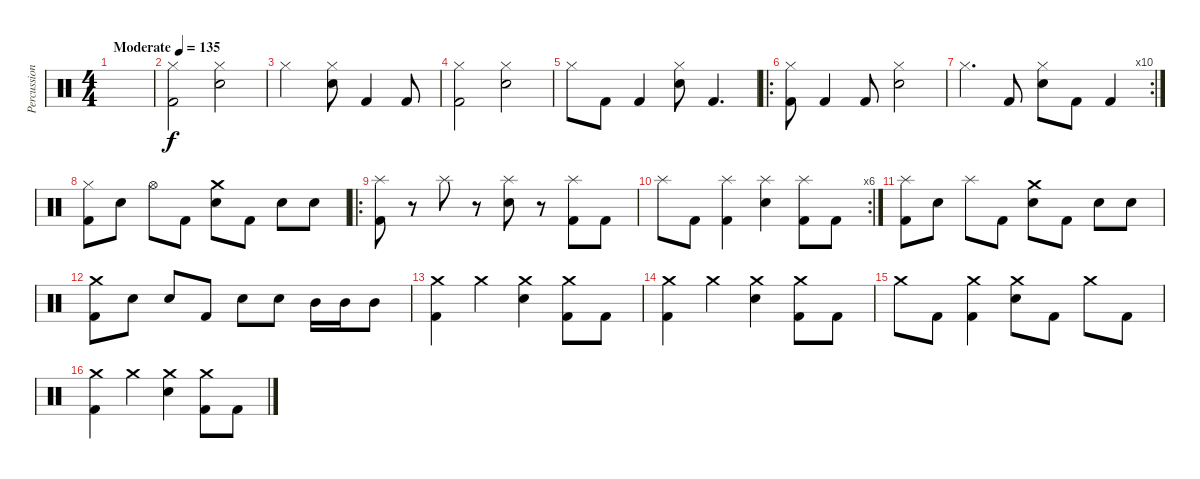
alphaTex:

\track ("Percussion" "Percussion") {instrument percussion}
\staff {score}
\articulation defaults
\ts (4 4)
\tempo (135 "Moderate")
\clef neutral
\ks c
|
("Hi-Hat (closed)" "Kick (hit) 2").2 ("Hi-Hat (closed)" "Electric Snare (hit)").2 |
"Hi-Hat (closed)".2 ("Hi-Hat (closed)" "Electric Snare (hit)").8 "Kick (hit) 2".4 "Kick (hit) 2".8 |
("Hi-Hat (closed)" "Kick (hit) 2").2 ("Hi-Hat (closed)" "Electric Snare (hit)").2 |
"Hi-Hat (closed)".8 "Kick (hit) 2".8 "Kick (hit) 2".4 ("Hi-Hat (closed)" "Electric Snare (hit)").8 "Kick (hit) 2".4{d} |
\ro
("Hi-Hat (closed)" "Kick (hit) 2").8 "Kick (hit) 2".4 "Kick (hit) 2".8 ("Hi-Hat (closed)" "Electric Snare (hit)").2 |
\rc 10 "Hi-Hat (closed)".4{d} "Kick (hit) 2".8
("Hi-Hat (closed)" "Electric Snare (hit)").8 "Kick (hit) 2".8 "Kick (hit) 2".4 |
("Hi-Hat (closed)" "Kick (hit) 2").8 "Electric Snare (hit)".8 "Hi-Hat (open)".8 "Kick (hit) 2".8 ("Crash medium (hit)" "Electric Snare (hit)").8 "Kick (hit) 2".8 "Electric Snare (hit)".8 "Electric Snare (hit)".8 |
\ro
("Splash (hit)" "Kick (hit) 2").8 r.8 "Splash (hit)".8 r.8 ("Splash (hit)" "Electric Snare (hit)").8 r.8 ("Splash (hit)" "Kick (hit) 2").8 "Kick (hit) 2".8 |
\rc 6 "Splash (hit)".8 "Kick (hit) 2".8
("Splash (hit)" "Kick (hit) 2").4 ("Splash (hit)" "Electric Snare (hit)").4 ("Splash (hit)" "Kick (hit) 2").8 "Kick (hit) 2".8 |
("Splash (hit)" "Kick (hit) 2").8 "Electric Snare (hit)".8 "Splash (hit)".8 "Kick (hit) 2".8 ("Crash medium (hit)" "Electric Snare (hit)").8 "Kick (hit) 2".8 "Electric Snare (hit)".8 "Electric Snare (hit)".8 |
("Crash medium (hit)" "Kick (hit) 2").8 "Electric Snare (hit)".8 "Electric Snare (hit)".8 "Kick (hit) 2".8 "Electric Snare (hit)".8 "Electric Snare (hit)".8 "Mid Tom (hit)".16 "Mid Tom (hit)".16 "Mid Tom (hit)".8 |
("Crash medium (hit)" "Kick (hit) 2").4 "Crash medium (hit)".4 ("Crash medium (hit)" "Electric Snare (hit)").4 ("Crash medium (hit)" "Kick (hit) 2").8 "Kick (hit) 2".8 |
("Crash medium (hit)" "Kick (hit) 2").4 "Crash medium (hit)".4 ("Crash medium (hit)" "Electric Snare (hit)").4 ("Crash medium (hit)" "Kick (hit) 2").8 "Kick (hit) 2".8 |
"Crash medium (hit)".8 "Kick (hit) 2".8 ("Crash medium (hit)" "Kick (hit) 2").4 ("Crash medium (hit)" "Electric Snare (hit)").8 "Kick (hit) 2".8 "Crash medium (hit)".8 "Kick (hit) 2".8 |
("Crash medium (hit)" "Kick (hit) 2").4 "Crash medium (hit)".4 ("Crash medium (hit)" "Electric Snare (hit)").4 ("Crash medium (hit)" "Kick (hit) 2").8 "Kick (hit) 2".8
